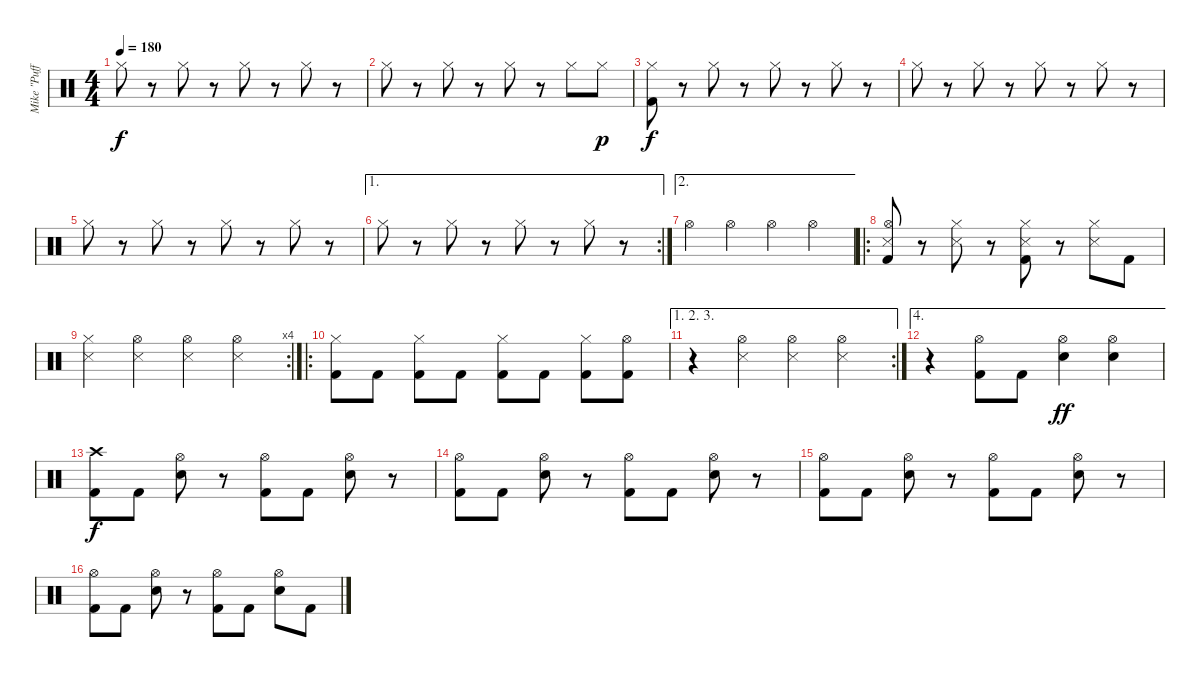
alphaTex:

\track ("Mike \"Puffy\" Bordin" "Mike \"Puff") {instrument percussion}
\staff {score}
\articulation defaults
\ts (4 4)
\tempo 180
\clef neutral
\ks c "Hi-Hat (closed)".8{dy f}
r.8 "Hi-Hat (closed)".8 r.8 "Hi-Hat (closed)".8 r.8 "Hi-Hat (closed)".8 r.8 |
"Hi-Hat (closed)".8 r.8 "Hi-Hat (closed)".8 r.8 "Hi-Hat (closed)".8 r.8 "Hi-Hat (closed)".8 "Hi-Hat (closed)".8{dy p} |
("Hi-Hat (closed)" "Kick (hit) 2").8{dy f} r.8 "Hi-Hat (closed)".8 r.8 "Hi-Hat (closed)".8 r.8 "Hi-Hat (closed)".8 r.8 |
"Hi-Hat (closed)".8 r.8 "Hi-Hat (closed)".8 r.8 "Hi-Hat (closed)".8 r.8 "Hi-Hat (closed)".8 r.8 |
"Hi-Hat (closed)".8 r.8 "Hi-Hat (closed)".8 r.8 "Hi-Hat (closed)".8 r.8 "Hi-Hat (closed)".8 r.8 |
\ae 1
\rc 2 "Hi-Hat (closed)".8
r.8 "Hi-Hat (closed)".8 r.8 "Hi-Hat (closed)".8 r.8 "Hi-Hat (closed)".8 r.8 |
\ae 2 "Hi-Hat (open)".4 "Hi-Hat (open)".4 "Hi-Hat (open)".4 "Hi-Hat (open)".4
|
\ro
("Hi-Hat (open)" "Snare (side stick) 3" "Kick (hit) 2").8 r.8 ("Hi-Hat (closed)" "Snare (side stick) 3").8 r.8 ("Hi-Hat (closed)" "Snare (side stick) 3" "Kick (hit) 2").8 r.8 ("Hi-Hat (closed)" "Snare (side stick) 3").8 "Kick (hit) 2".8 |
\rc 4
("Hi-Hat (closed)" "Snare (side stick) 3").4 ("Hi-Hat (open)" "Snare (side stick) 3").4 ("Hi-Hat (open)" "Snare (side stick) 3").4 ("Hi-Hat (open)" "Snare (side stick) 3").4 |
\ro
("Hi-Hat (closed)" "Kick (hit) 2").8 "Kick (hit) 2".8 ("Hi-Hat (closed)" "Kick (hit) 2").8 "Kick (hit) 2".8 ("Hi-Hat (closed)" "Kick (hit) 2").8 "Kick (hit) 2".8 ("Hi-Hat (closed)" "Kick (hit) 2").8 ("Hi-Hat (open)" "Kick (hit) 2").8 |
\ae (1 2 3)
\rc 2
r.4 ("Hi-Hat (open)" "Snare (side stick) 3").4 ("Hi-Hat (open)" "Snare (side stick) 3").4 ("Hi-Hat (open)" "Snare (side stick) 3").4 |
\ae 4
r.4 ("Hi-Hat (open)" "Kick (hit) 2").8 "Kick (hit) 2".8 ("Hi-Hat (open)" "Electric Snare (hit)").4{dy ff} ("Hi-Hat (open)" "Electric Snare (hit)").4 |
("Crash high (hit)" "Kick (hit) 2").8{dy f} "Kick (hit) 2".8 ("Hi-Hat (open)" "Electric Snare (hit)").8 r.8 ("Hi-Hat (open)" "Kick (hit) 2").8 "Kick (hit) 2".8 ("Hi-Hat (open)" "Electric Snare (hit)").8 r.8 |
("Hi-Hat (open)" "Kick (hit) 2").8 "Kick (hit) 2".8 ("Hi-Hat (open)" "Electric Snare (hit)").8 r.8 ("Hi-Hat (open)" "Kick (hit) 2").8 "Kick (hit) 2".8 ("Hi-Hat (open)" "Electric Snare (hit)").8 r.8 |
("Hi-Hat (open)" "Kick (hit) 2").8 "Kick (hit) 2".8 ("Hi-Hat (open)" "Electric Snare (hit)").8 r.8 ("Hi-Hat (open)" "Kick (hit) 2").8 "Kick (hit) 2".8 ("Hi-Hat (open)" "Electric Snare (hit)").8 r.8 |
("Hi-Hat (open)" "Kick (hit) 2").8 "Kick (hit) 2".8 ("Hi-Hat (open)" "Electric Snare (hit)").8 r.8 ("Hi-Hat (open)" "Kick (hit) 2").8 "Kick (hit) 2".8 ("Hi-Hat (open)" "Electric Snare (hit)").8 "Kick (hit) 2".8
